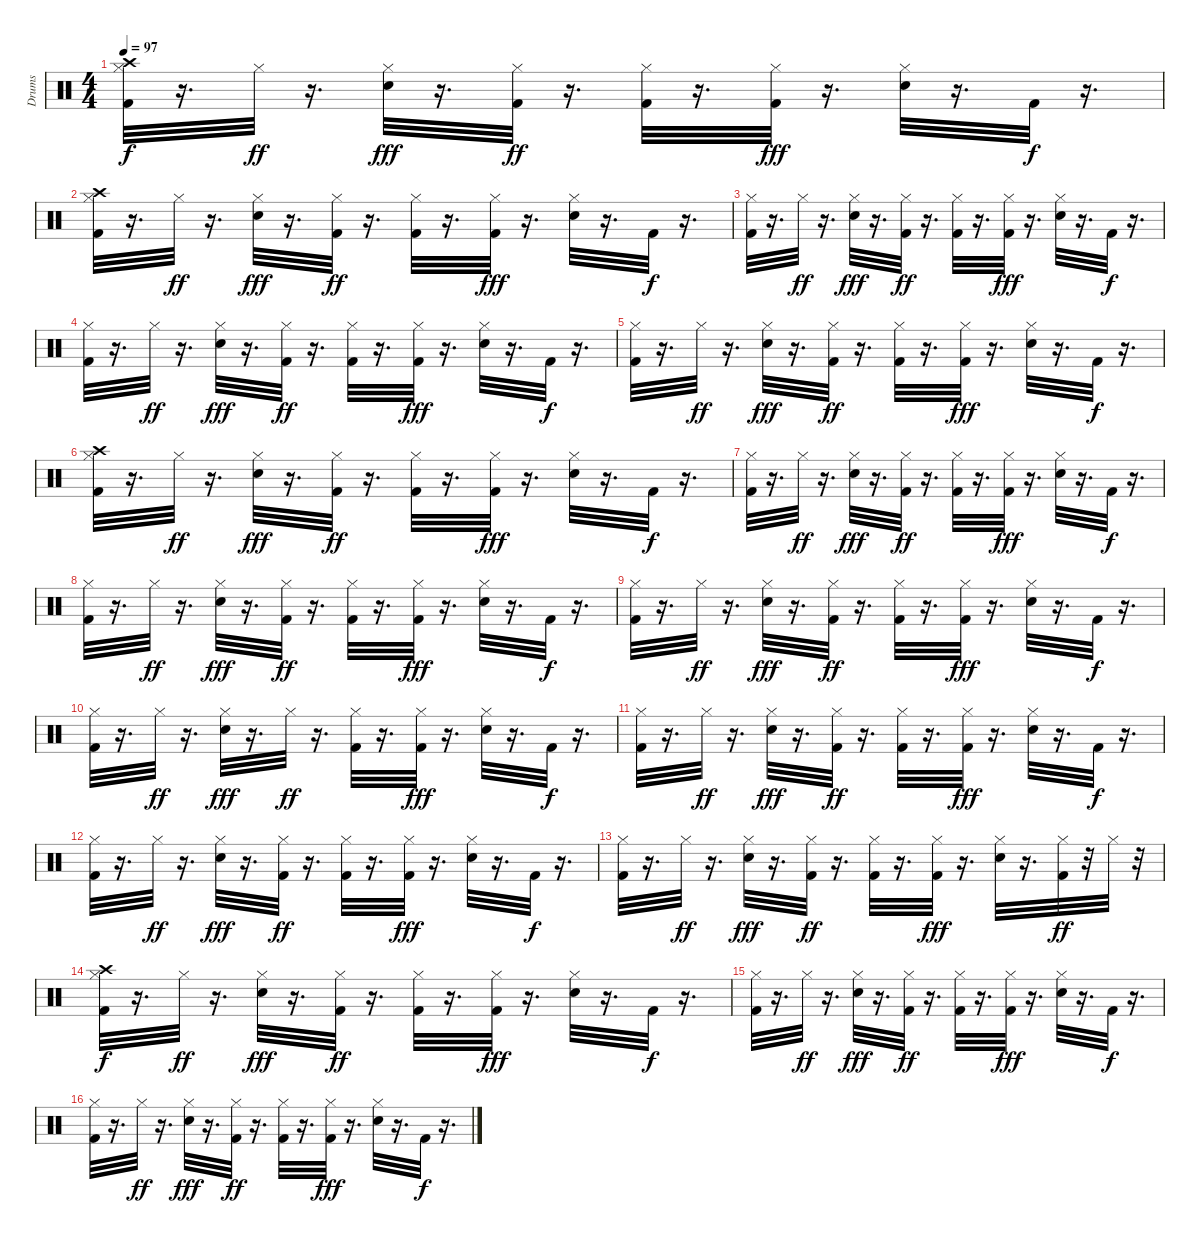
\track ("Drums" "Drums") {instrument percussion}
\staff {score}
\articulation defaults
\ts (4 4)
\tempo 97
\clef neutral
\ks c
("Crash high (hit)" "Hi-Hat (closed)" "Kick (hit) 2").32{dy f} r.16{d} "Hi-Hat (closed)".32{dy ff} r.16{d} ("Hi-Hat (closed)" "Electric Snare (hit)").32{dy fff} r.16{d} ("Hi-Hat (closed)" "Kick (hit) 2").32{dy ff} r.16{d} ("Hi-Hat (closed)" "Kick (hit) 2").32 r.16{d} ("Hi-Hat (closed)" "Kick (hit) 2").32{dy fff} r.16{d} ("Hi-Hat (closed)" "Electric Snare (hit)").32 r.16{d} "Kick (hit) 2".32{dy f} r.16{d} |
("Crash high (hit)" "Hi-Hat (closed)" "Kick (hit) 2").32 r.16{d} "Hi-Hat (closed)".32{dy ff} r.16{d} ("Hi-Hat (closed)" "Electric Snare (hit)").32{dy fff} r.16{d} ("Hi-Hat (closed)" "Kick (hit) 2").32{dy ff} r.16{d} ("Hi-Hat (closed)" "Kick (hit) 2").32 r.16{d} ("Hi-Hat (closed)" "Kick (hit) 2").32{dy fff} r.16{d} ("Hi-Hat (closed)" "Electric Snare (hit)").32 r.16{d} "Kick (hit) 2".32{dy f} r.16{d} |
("Hi-Hat (closed)" "Kick (hit) 2").32 r.16{d} "Hi-Hat (closed)".32{dy ff} r.16{d} ("Hi-Hat (closed)" "Electric Snare (hit)").32{dy fff} r.16{d} ("Hi-Hat (closed)" "Kick (hit) 2").32{dy ff} r.16{d} ("Hi-Hat (closed)" "Kick (hit) 2").32 r.16{d} ("Hi-Hat (closed)" "Kick (hit) 2").32{dy fff} r.16{d} ("Hi-Hat (closed)" "Electric Snare (hit)").32 r.16{d} "Kick (hit) 2".32{dy f} r.16{d} |
("Hi-Hat (closed)" "Kick (hit) 2").32 r.16{d} "Hi-Hat (closed)".32{dy ff} r.16{d} ("Hi-Hat (closed)" "Electric Snare (hit)").32{dy fff} r.16{d} ("Hi-Hat (closed)" "Kick (hit) 2").32{dy ff} r.16{d} ("Hi-Hat (closed)" "Kick (hit) 2").32 r.16{d} ("Hi-Hat (closed)" "Kick (hit) 2").32{dy fff} r.16{d} ("Hi-Hat (closed)" "Electric Snare (hit)").32 r.16{d} "Kick (hit) 2".32{dy f} r.16{d} |
("Hi-Hat (closed)" "Kick (hit) 2").32 r.16{d} "Hi-Hat (closed)".32{dy ff} r.16{d} ("Hi-Hat (closed)" "Electric Snare (hit)").32{dy fff} r.16{d} ("Hi-Hat (closed)" "Kick (hit) 2").32{dy ff} r.16{d} ("Hi-Hat (closed)" "Kick (hit) 2").32 r.16{d} ("Hi-Hat (closed)" "Kick (hit) 2").32{dy fff} r.16{d} ("Hi-Hat (closed)" "Electric Snare (hit)").32 r.16{d} "Kick (hit) 2".32{dy f} r.16{d} |
("Crash high (hit)" "Hi-Hat (closed)" "Kick (hit) 2").32 r.16{d} "Hi-Hat (closed)".32{dy ff} r.16{d} ("Hi-Hat (closed)" "Electric Snare (hit)").32{dy fff} r.16{d} ("Hi-Hat (closed)" "Kick (hit) 2").32{dy ff} r.16{d} ("Hi-Hat (closed)" "Kick (hit) 2").32 r.16{d} ("Hi-Hat (closed)" "Kick (hit) 2").32{dy fff} r.16{d} ("Hi-Hat (closed)" "Electric Snare (hit)").32 r.16{d} "Kick (hit) 2".32{dy f} r.16{d} |
("Hi-Hat (closed)" "Kick (hit) 2").32 r.16{d} "Hi-Hat (closed)".32{dy ff} r.16{d} ("Hi-Hat (closed)" "Electric Snare (hit)").32{dy fff} r.16{d} ("Hi-Hat (closed)" "Kick (hit) 2").32{dy ff} r.16{d} ("Hi-Hat (closed)" "Kick (hit) 2").32 r.16{d} ("Hi-Hat (closed)" "Kick (hit) 2").32{dy fff} r.16{d} ("Hi-Hat (closed)" "Electric Snare (hit)").32 r.16{d} "Kick (hit) 2".32{dy f} r.16{d} |
("Hi-Hat (closed)" "Kick (hit) 2").32 r.16{d} "Hi-Hat (closed)".32{dy ff} r.16{d} ("Hi-Hat (closed)" "Electric Snare (hit)").32{dy fff} r.16{d} ("Hi-Hat (closed)" "Kick (hit) 2").32{dy ff} r.16{d} ("Hi-Hat (closed)" "Kick (hit) 2").32 r.16{d} ("Hi-Hat (closed)" "Kick (hit) 2").32{dy fff} r.16{d} ("Hi-Hat (closed)" "Electric Snare (hit)").32 r.16{d} "Kick (hit) 2".32{dy f} r.16{d} |
("Hi-Hat (closed)" "Kick (hit) 2").32 r.16{d} "Hi-Hat (closed)".32{dy ff} r.16{d} ("Hi-Hat (closed)" "Electric Snare (hit)").32{dy fff} r.16{d} ("Hi-Hat (closed)" "Kick (hit) 2").32{dy ff} r.16{d} ("Hi-Hat (closed)" "Kick (hit) 2").32 r.16{d} ("Hi-Hat (closed)" "Kick (hit) 2").32{dy fff} r.16{d} ("Hi-Hat (closed)" "Electric Snare (hit)").32 r.16{d} "Kick (hit) 2".32{dy f} r.16{d} |
("Hi-Hat (closed)" "Kick (hit) 2").32 r.16{d} "Hi-Hat (closed)".32{dy ff} r.16{d} ("Hi-Hat (closed)" "Electric Snare (hit)").32{dy fff} r.16{d} "Hi-Hat (closed)".32{dy ff} r.16{d} ("Hi-Hat (closed)" "Kick (hit) 2").32 r.16{d} ("Hi-Hat (closed)" "Kick (hit) 2").32{dy fff} r.16{d} ("Hi-Hat (closed)" "Electric Snare (hit)").32 r.16{d} "Kick (hit) 2".32{dy f} r.16{d} |
("Hi-Hat (closed)" "Kick (hit) 2").32 r.16{d} "Hi-Hat (closed)".32{dy ff} r.16{d} ("Hi-Hat (closed)" "Electric Snare (hit)").32{dy fff} r.16{d} ("Hi-Hat (closed)" "Kick (hit) 2").32{dy ff} r.16{d} ("Hi-Hat (closed)" "Kick (hit) 2").32 r.16{d} ("Hi-Hat (closed)" "Kick (hit) 2").32{dy fff} r.16{d} ("Hi-Hat (closed)" "Electric Snare (hit)").32 r.16{d} "Kick (hit) 2".32{dy f} r.16{d} |
("Hi-Hat (closed)" "Kick (hit) 2").32 r.16{d} "Hi-Hat (closed)".32{dy ff} r.16{d} ("Hi-Hat (closed)" "Electric Snare (hit)").32{dy fff} r.16{d} ("Hi-Hat (closed)" "Kick (hit) 2").32{dy ff} r.16{d} ("Hi-Hat (closed)" "Kick (hit) 2").32 r.16{d} ("Hi-Hat (closed)" "Kick (hit) 2").32{dy fff} r.16{d} ("Hi-Hat (closed)" "Electric Snare (hit)").32 r.16{d} "Kick (hit) 2".32{dy f} r.16{d} |
("Hi-Hat (closed)" "Kick (hit) 2").32 r.16{d} "Hi-Hat (closed)".32{dy ff} r.16{d} ("Hi-Hat (closed)" "Electric Snare (hit)").32{dy fff} r.16{d} ("Hi-Hat (closed)" "Kick (hit) 2").32{dy ff} r.16{d} ("Hi-Hat (closed)" "Kick (hit) 2").32 r.16{d} ("Hi-Hat (closed)" "Kick (hit) 2").32{dy fff} r.16{d} ("Hi-Hat (closed)" "Electric Snare (hit)").32 r.16{d} ("Hi-Hat (closed)" "Kick (hit) 2").32{dy ff} r.32 "Hi-Hat (closed)".32 r.32 |
("Crash high (hit)" "Hi-Hat (closed)" "Kick (hit) 2").32{dy f} r.16{d} "Hi-Hat (closed)".32{dy ff} r.16{d} ("Hi-Hat (closed)" "Electric Snare (hit)").32{dy fff} r.16{d} ("Hi-Hat (closed)" "Kick (hit) 2").32{dy ff} r.16{d} ("Hi-Hat (closed)" "Kick (hit) 2").32 r.16{d} ("Hi-Hat (closed)" "Kick (hit) 2").32{dy fff} r.16{d} ("Hi-Hat (closed)" "Electric Snare (hit)").32 r.16{d} "Kick (hit) 2".32{dy f} r.16{d} |
("Hi-Hat (closed)" "Kick (hit) 2").32 r.16{d} "Hi-Hat (closed)".32{dy ff} r.16{d} ("Hi-Hat (closed)" "Electric Snare (hit)").32{dy fff} r.16{d} ("Hi-Hat (closed)" "Kick (hit) 2").32{dy ff} r.16{d} ("Hi-Hat (closed)" "Kick (hit) 2").32 r.16{d} ("Hi-Hat (closed)" "Kick (hit) 2").32{dy fff} r.16{d} ("Hi-Hat (closed)" "Electric Snare (hit)").32 r.16{d} "Kick (hit) 2".32{dy f} r.16{d} |
("Hi-Hat (closed)" "Kick (hit) 2").32 r.16{d} "Hi-Hat (closed)".32{dy ff} r.16{d} ("Hi-Hat (closed)" "Electric Snare (hit)").32{dy fff} r.16{d} ("Hi-Hat (closed)" "Kick (hit) 2").32{dy ff} r.16{d} ("Hi-Hat (closed)" "Kick (hit) 2").32 r.16{d} ("Hi-Hat (closed)" "Kick (hit) 2").32{dy fff} r.16{d} ("Hi-Hat (closed)" "Electric Snare (hit)").32 r.16{d} "Kick (hit) 2".32{dy f} r.16{d}
